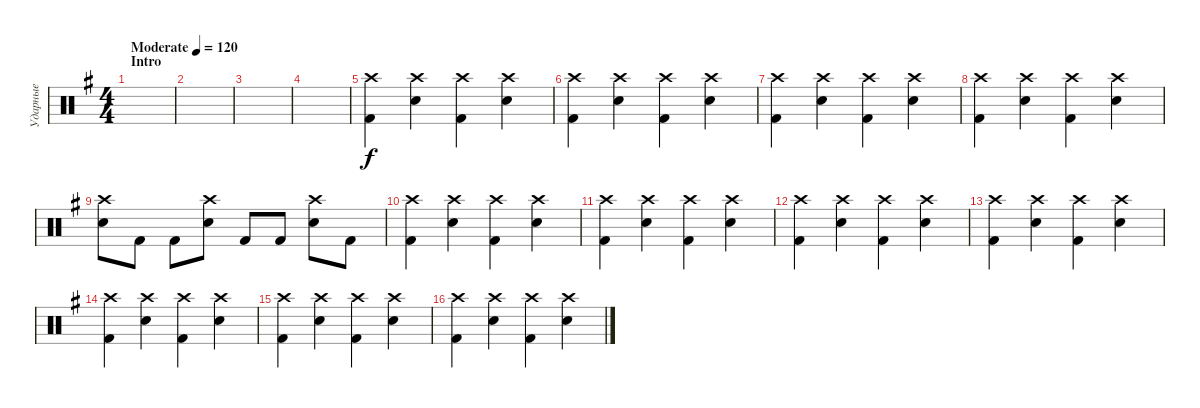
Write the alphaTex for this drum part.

\track ("Ударные" "Ударные") {instrument percussion}
\staff {score}
\articulation defaults
\ts (4 4)
\section ("" "Intro")
\tempo (120 "Moderate")
\clef neutral
\ks g
|
|
|
|
("Kick (hit) 2" "Crash high (hit)").4 ("Snare (hit) 2" "Crash high (hit)").4 ("Kick (hit) 2" "Crash high (hit)").4 ("Snare (hit) 2" "Crash high (hit)").4 |
("Kick (hit) 2" "Crash high (hit)").4 ("Snare (hit) 2" "Crash high (hit)").4 ("Kick (hit) 2" "Crash high (hit)").4 ("Snare (hit) 2" "Crash high (hit)").4 |
("Kick (hit) 2" "Crash high (hit)").4 ("Snare (hit) 2" "Crash high (hit)").4 ("Kick (hit) 2" "Crash high (hit)").4 ("Snare (hit) 2" "Crash high (hit)").4 |
("Kick (hit) 2" "Crash high (hit)").4 ("Snare (hit) 2" "Crash high (hit)").4 ("Kick (hit) 2" "Crash high (hit)").4 ("Snare (hit) 2" "Crash high (hit)").4 |
("Snare (hit) 2" "Crash high (hit)").8 "Kick (hit) 2".8 "Kick (hit) 2".8 ("Snare (hit) 2" "Crash high (hit)").8 "Kick (hit) 2".8 "Kick (hit) 2".8 ("Snare (hit) 2" "Crash high (hit)").8 "Kick (hit) 2".8 |
("Kick (hit) 2" "Crash high (hit)").4 ("Snare (hit) 2" "Crash high (hit)").4 ("Kick (hit) 2" "Crash high (hit)").4 ("Snare (hit) 2" "Crash high (hit)").4 |
("Kick (hit) 2" "Crash high (hit)").4 ("Snare (hit) 2" "Crash high (hit)").4 ("Kick (hit) 2" "Crash high (hit)").4 ("Snare (hit) 2" "Crash high (hit)").4 |
("Kick (hit) 2" "Crash high (hit)").4 ("Snare (hit) 2" "Crash high (hit)").4 ("Kick (hit) 2" "Crash high (hit)").4 ("Snare (hit) 2" "Crash high (hit)").4 |
("Kick (hit) 2" "Crash high (hit)").4 ("Snare (hit) 2" "Crash high (hit)").4 ("Kick (hit) 2" "Crash high (hit)").4 ("Snare (hit) 2" "Crash high (hit)").4 |
("Kick (hit) 2" "Crash high (hit)").4 ("Snare (hit) 2" "Crash high (hit)").4 ("Kick (hit) 2" "Crash high (hit)").4 ("Snare (hit) 2" "Crash high (hit)").4 |
("Kick (hit) 2" "Crash high (hit)").4 ("Snare (hit) 2" "Crash high (hit)").4 ("Kick (hit) 2" "Crash high (hit)").4 ("Snare (hit) 2" "Crash high (hit)").4 |
("Kick (hit) 2" "Crash high (hit)").4 ("Snare (hit) 2" "Crash high (hit)").4 ("Kick (hit) 2" "Crash high (hit)").4 ("Snare (hit) 2" "Crash high (hit)").4
